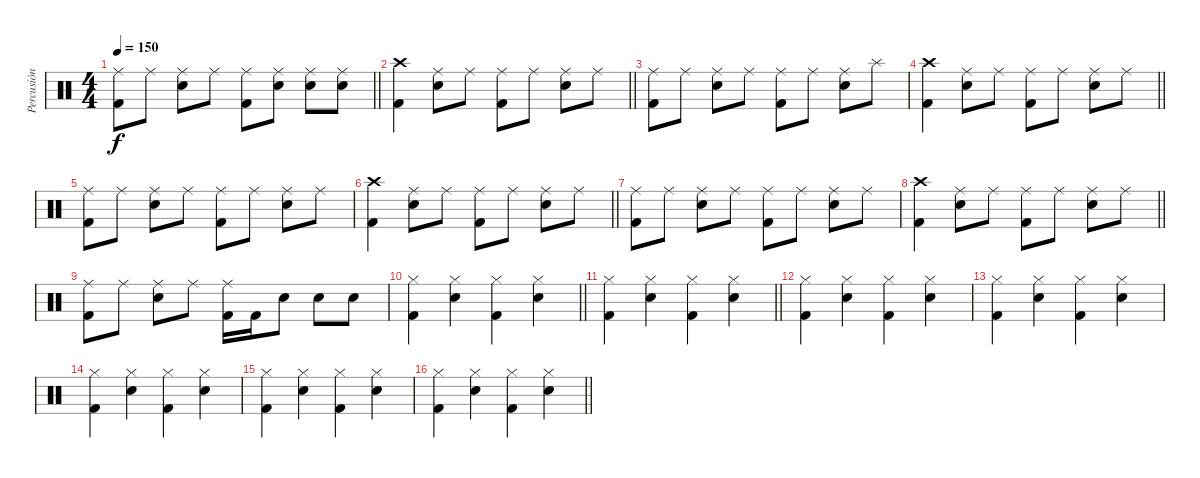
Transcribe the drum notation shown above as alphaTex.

\track ("Percusión" "Percusión") {instrument percussion}
\staff {score}
\articulation defaults
\ts (4 4)
\tempo 150
\clef neutral
\barLineRight lightlight
\ks c
("Ride (middle)" "Kick (hit) 2").8{dy f} "Ride (middle)".8 ("Ride (middle)" "Snare (hit) 2").8 "Ride (middle)".8 ("Ride (middle)" "Kick (hit) 2").8 ("Ride (middle)" "Snare (hit) 2").8 ("Ride (middle)" "Snare (hit) 2").8 ("Ride (middle)" "Snare (hit) 2").8 |
\barLineRight lightlight
("Crash high (hit)" "Kick (hit) 2").4 ("Ride (middle)" "Snare (hit) 2").8 "Ride (middle)".8 ("Ride (middle)" "Kick (hit) 2").8 "Ride (middle)".8 ("Ride (middle)" "Snare (hit) 2").8 "Ride (middle)".8 |
("Ride (middle)" "Kick (hit) 2").8 "Ride (middle)".8 ("Ride (middle)" "Snare (hit) 2").8 "Ride (middle)".8 ("Ride (middle)" "Kick (hit) 2").8 "Ride (middle)".8 ("Ride (middle)" "Snare (hit) 2").8 "Splash (hit)".8 |
\barLineRight lightlight
("Crash high (hit)" "Kick (hit) 2").4 ("Ride (middle)" "Snare (hit) 2").8 "Ride (middle)".8 ("Ride (middle)" "Kick (hit) 2").8 "Ride (middle)".8 ("Ride (middle)" "Snare (hit) 2").8 "Ride (middle)".8 |
("Ride (middle)" "Kick (hit) 2").8 "Ride (middle)".8 ("Ride (middle)" "Snare (hit) 2").8 "Ride (middle)".8 ("Ride (middle)" "Kick (hit) 2").8 "Ride (middle)".8 ("Ride (middle)" "Snare (hit) 2").8 "Ride (middle)".8 |
\barLineRight lightlight
("Crash high (hit)" "Kick (hit) 2").4 ("Ride (middle)" "Snare (hit) 2").8 "Ride (middle)".8 ("Ride (middle)" "Kick (hit) 2").8 "Ride (middle)".8 ("Ride (middle)" "Snare (hit) 2").8 "Ride (middle)".8 |
("Ride (middle)" "Kick (hit) 2").8 "Ride (middle)".8 ("Ride (middle)" "Snare (hit) 2").8 "Ride (middle)".8 ("Ride (middle)" "Kick (hit) 2").8 "Ride (middle)".8 ("Ride (middle)" "Snare (hit) 2").8 "Ride (middle)".8 |
\barLineRight lightlight
("Crash high (hit)" "Kick (hit) 2").4 ("Ride (middle)" "Snare (hit) 2").8 "Ride (middle)".8 ("Ride (middle)" "Kick (hit) 2").8 "Ride (middle)".8 ("Ride (middle)" "Snare (hit) 2").8 "Ride (middle)".8 |
("Ride (middle)" "Kick (hit) 2").8 "Ride (middle)".8 ("Ride (middle)" "Snare (hit) 2").8 "Ride (middle)".8 ("Ride (middle)" "Kick (hit) 2").16 "Kick (hit) 2".16 "Snare (hit) 2".8 "Snare (hit) 2".8 "Snare (hit) 2".8 |
\barLineRight lightlight
("Hi-Hat (closed)" "Kick (hit) 2").4 ("Hi-Hat (closed)" "Snare (hit) 2").4 ("Hi-Hat (closed)" "Kick (hit) 2").4 ("Hi-Hat (closed)" "Snare (hit) 2").4 |
\barLineRight lightlight
("Hi-Hat (closed)" "Kick (hit) 2").4 ("Hi-Hat (closed)" "Snare (hit) 2").4 ("Hi-Hat (closed)" "Kick (hit) 2").4 ("Hi-Hat (closed)" "Snare (hit) 2").4 |
("Hi-Hat (closed)" "Kick (hit) 2").4 ("Hi-Hat (closed)" "Snare (hit) 2").4 ("Hi-Hat (closed)" "Kick (hit) 2").4 ("Hi-Hat (closed)" "Snare (hit) 2").4 |
("Hi-Hat (closed)" "Kick (hit) 2").4 ("Hi-Hat (closed)" "Snare (hit) 2").4 ("Hi-Hat (closed)" "Kick (hit) 2").4 ("Hi-Hat (closed)" "Snare (hit) 2").4 |
("Hi-Hat (closed)" "Kick (hit) 2").4 ("Hi-Hat (closed)" "Snare (hit) 2").4 ("Hi-Hat (closed)" "Kick (hit) 2").4 ("Hi-Hat (closed)" "Snare (hit) 2").4 |
("Hi-Hat (closed)" "Kick (hit) 2").4 ("Hi-Hat (closed)" "Snare (hit) 2").4 ("Hi-Hat (closed)" "Kick (hit) 2").4 ("Hi-Hat (closed)" "Snare (hit) 2").4 |
\barLineRight lightlight
("Hi-Hat (closed)" "Kick (hit) 2").4 ("Hi-Hat (closed)" "Snare (hit) 2").4 ("Hi-Hat (closed)" "Kick (hit) 2").4 ("Hi-Hat (closed)" "Snare (hit) 2").4
